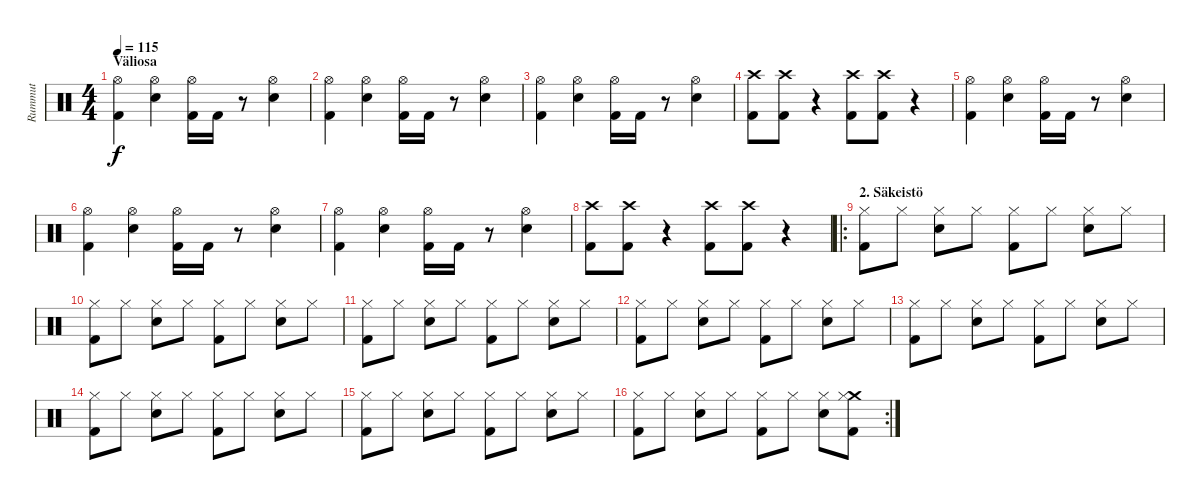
\track ("Rummut" "Rummut") {instrument percussion}
\staff {score}
\articulation defaults
\ts (4 4)
\section ("" "Väliosa")
\tempo 115
\clef neutral
\ks c
("Hi-Hat (open)" "Kick (hit) 2").4{dy f} ("Snare (hit) 2" "Hi-Hat (open)").4 ("Hi-Hat (open)" "Kick (hit) 2").16 "Kick (hit) 2".16 r.8 ("Snare (hit) 2" "Hi-Hat (open)").4 |
("Hi-Hat (open)" "Kick (hit) 2").4 ("Snare (hit) 2" "Hi-Hat (open)").4 ("Hi-Hat (open)" "Kick (hit) 2").16 "Kick (hit) 2".16 r.8 ("Snare (hit) 2" "Hi-Hat (open)").4 |
("Hi-Hat (open)" "Kick (hit) 2").4 ("Snare (hit) 2" "Hi-Hat (open)").4 ("Hi-Hat (open)" "Kick (hit) 2").16 "Kick (hit) 2".16 r.8 ("Snare (hit) 2" "Hi-Hat (open)").4 |
("Kick (hit) 2" "Crash high (hit)").8 ("Kick (hit) 2" "Crash high (hit)").8 r.4 ("Kick (hit) 2" "Crash high (hit)").8 ("Kick (hit) 2" "Crash high (hit)").8 r.4 |
("Hi-Hat (open)" "Kick (hit) 2").4 ("Snare (hit) 2" "Hi-Hat (open)").4 ("Hi-Hat (open)" "Kick (hit) 2").16 "Kick (hit) 2".16 r.8 ("Snare (hit) 2" "Hi-Hat (open)").4 |
("Hi-Hat (open)" "Kick (hit) 2").4 ("Snare (hit) 2" "Hi-Hat (open)").4 ("Hi-Hat (open)" "Kick (hit) 2").16 "Kick (hit) 2".16 r.8 ("Snare (hit) 2" "Hi-Hat (open)").4 |
("Hi-Hat (open)" "Kick (hit) 2").4 ("Snare (hit) 2" "Hi-Hat (open)").4 ("Hi-Hat (open)" "Kick (hit) 2").16 "Kick (hit) 2".16 r.8 ("Snare (hit) 2" "Hi-Hat (open)").4 |
("Kick (hit) 2" "Crash high (hit)").8 ("Kick (hit) 2" "Crash high (hit)").8 r.4 ("Kick (hit) 2" "Crash high (hit)").8 ("Kick (hit) 2" "Crash high (hit)").8 r.4 |
\ro
\section ("" "2. Säkeistö")
("Hi-Hat (closed)" "Kick (hit) 2").8 "Hi-Hat (closed)".8 ("Snare (hit) 2" "Hi-Hat (closed)").8 "Hi-Hat (closed)".8 ("Hi-Hat (closed)" "Kick (hit) 2").8 "Hi-Hat (closed)".8 ("Snare (hit) 2" "Hi-Hat (closed)").8 "Hi-Hat (closed)".8 |
("Hi-Hat (closed)" "Kick (hit) 2").8 "Hi-Hat (closed)".8 ("Snare (hit) 2" "Hi-Hat (closed)").8 "Hi-Hat (closed)".8 ("Hi-Hat (closed)" "Kick (hit) 2").8 "Hi-Hat (closed)".8 ("Snare (hit) 2" "Hi-Hat (closed)").8 "Hi-Hat (closed)".8 |
("Hi-Hat (closed)" "Kick (hit) 2").8 "Hi-Hat (closed)".8 ("Snare (hit) 2" "Hi-Hat (closed)").8 "Hi-Hat (closed)".8 ("Hi-Hat (closed)" "Kick (hit) 2").8 "Hi-Hat (closed)".8 ("Snare (hit) 2" "Hi-Hat (closed)").8 "Hi-Hat (closed)".8 |
("Hi-Hat (closed)" "Kick (hit) 2").8 "Hi-Hat (closed)".8 ("Snare (hit) 2" "Hi-Hat (closed)").8 "Hi-Hat (closed)".8 ("Hi-Hat (closed)" "Kick (hit) 2").8 "Hi-Hat (closed)".8 ("Snare (hit) 2" "Hi-Hat (closed)").8 "Hi-Hat (closed)".8 |
("Hi-Hat (closed)" "Kick (hit) 2").8 "Hi-Hat (closed)".8 ("Snare (hit) 2" "Hi-Hat (closed)").8 "Hi-Hat (closed)".8 ("Hi-Hat (closed)" "Kick (hit) 2").8 "Hi-Hat (closed)".8 ("Snare (hit) 2" "Hi-Hat (closed)").8 "Hi-Hat (closed)".8 |
("Hi-Hat (closed)" "Kick (hit) 2").8 "Hi-Hat (closed)".8 ("Snare (hit) 2" "Hi-Hat (closed)").8 "Hi-Hat (closed)".8 ("Hi-Hat (closed)" "Kick (hit) 2").8 "Hi-Hat (closed)".8 ("Snare (hit) 2" "Hi-Hat (closed)").8 "Hi-Hat (closed)".8 |
("Hi-Hat (closed)" "Kick (hit) 2").8 "Hi-Hat (closed)".8 ("Snare (hit) 2" "Hi-Hat (closed)").8 "Hi-Hat (closed)".8 ("Hi-Hat (closed)" "Kick (hit) 2").8 "Hi-Hat (closed)".8 ("Snare (hit) 2" "Hi-Hat (closed)").8 "Hi-Hat (closed)".8 |
\rc 2
("Hi-Hat (closed)" "Kick (hit) 2").8 "Hi-Hat (closed)".8 ("Snare (hit) 2" "Hi-Hat (closed)").8 "Hi-Hat (closed)".8 ("Hi-Hat (closed)" "Kick (hit) 2").8 "Hi-Hat (closed)".8 ("Snare (hit) 2" "Hi-Hat (closed)").8 ("Crash medium (hit)" "Hi-Hat (closed)" "Kick (hit) 2").8
